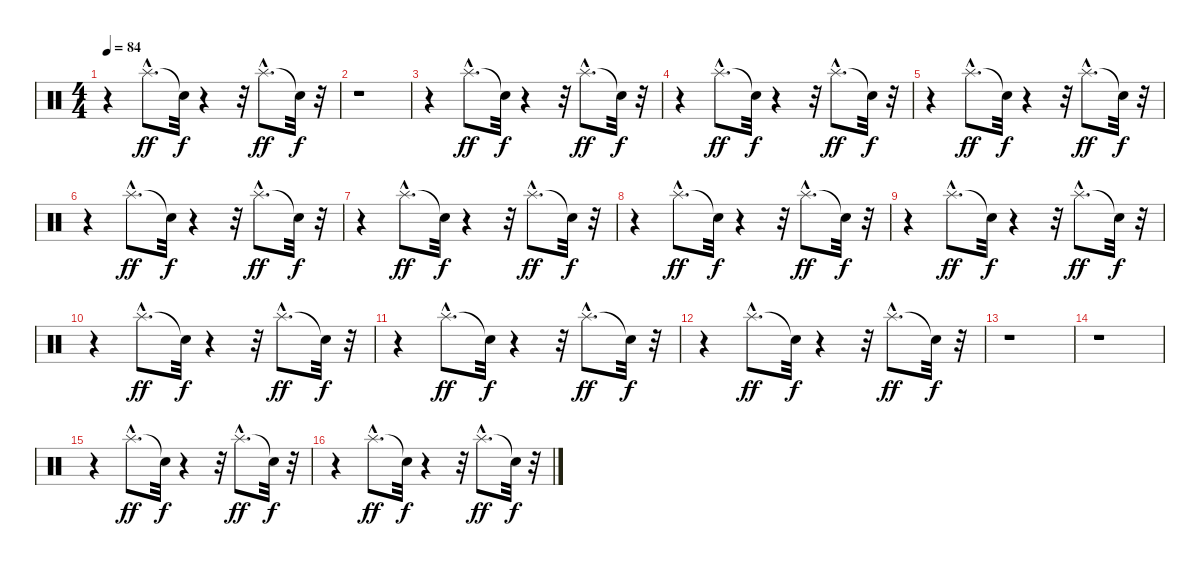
\track "" {instrument percussion}
\staff {score}
\articulation defaults
\ts (4 4)
\tempo 84
\clef neutral
\ks c
r.4{dy f} "Splash (hit)"{hac}.8{d dy ff} "Snare (hit)"{t}.32{dy f} r.4 r.32 "Splash (hit)"{hac}.8{d dy ff} "Snare (hit)"{t}.32{dy f} r.32 |
r.1 |
r.4 "Splash (hit)"{hac}.8{d dy ff} "Snare (hit)"{t}.32{dy f} r.4 r.32 "Splash (hit)"{hac}.8{d dy ff} "Snare (hit)"{t}.32{dy f} r.32 |
r.4 "Splash (hit)"{hac}.8{d dy ff} "Snare (hit)"{t}.32{dy f} r.4 r.32 "Splash (hit)"{hac}.8{d dy ff} "Snare (hit)"{t}.32{dy f} r.32 |
r.4 "Splash (hit)"{hac}.8{d dy ff} "Snare (hit)"{t}.32{dy f} r.4 r.32 "Splash (hit)"{hac}.8{d dy ff} "Snare (hit)"{t}.32{dy f} r.32 |
r.4 "Splash (hit)"{hac}.8{d dy ff} "Snare (hit)"{t}.32{dy f} r.4 r.32 "Splash (hit)"{hac}.8{d dy ff} "Snare (hit)"{t}.32{dy f} r.32 |
r.4 "Splash (hit)"{hac}.8{d dy ff} "Snare (hit)"{t}.32{dy f} r.4 r.32 "Splash (hit)"{hac}.8{d dy ff} "Snare (hit)"{t}.32{dy f} r.32 |
r.4 "Splash (hit)"{hac}.8{d dy ff} "Snare (hit)"{t}.32{dy f} r.4 r.32 "Splash (hit)"{hac}.8{d dy ff} "Snare (hit)"{t}.32{dy f} r.32 |
r.4 "Splash (hit)"{hac}.8{d dy ff} "Snare (hit)"{t}.32{dy f} r.4 r.32 "Splash (hit)"{hac}.8{d dy ff} "Snare (hit)"{t}.32{dy f} r.32 |
r.4 "Splash (hit)"{hac}.8{d dy ff} "Snare (hit)"{t}.32{dy f} r.4 r.32 "Splash (hit)"{hac}.8{d dy ff} "Snare (hit)"{t}.32{dy f} r.32 |
r.4 "Splash (hit)"{hac}.8{d dy ff} "Snare (hit)"{t}.32{dy f} r.4 r.32 "Splash (hit)"{hac}.8{d dy ff} "Snare (hit)"{t}.32{dy f} r.32 |
r.4 "Splash (hit)"{hac}.8{d dy ff} "Snare (hit)"{t}.32{dy f} r.4 r.32 "Splash (hit)"{hac}.8{d dy ff} "Snare (hit)"{t}.32{dy f} r.32 |
r.1 |
r.1 |
r.4 "Splash (hit)"{hac}.8{d dy ff} "Snare (hit)"{t}.32{dy f} r.4 r.32 "Splash (hit)"{hac}.8{d dy ff} "Snare (hit)"{t}.32{dy f} r.32 |
r.4 "Splash (hit)"{hac}.8{d dy ff} "Snare (hit)"{t}.32{dy f} r.4 r.32 "Splash (hit)"{hac}.8{d dy ff} "Snare (hit)"{t}.32{dy f} r.32
